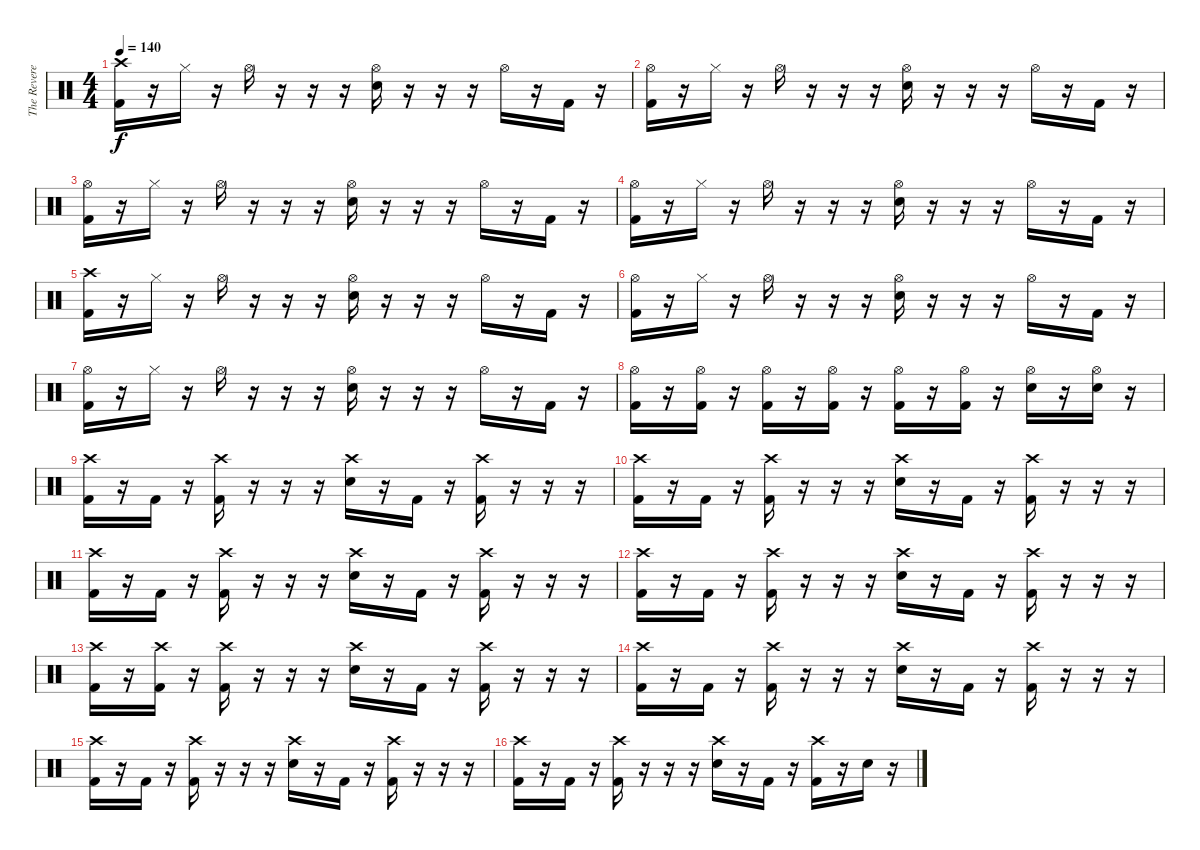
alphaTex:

\track ("The Reverend" "The Revere") {instrument percussion}
\staff {score}
\articulation defaults
\ts (4 4)
\tempo 140
\clef neutral
\ks c
("Crash high (hit)" "Kick (hit) 2").16{dy f} r.16 "Hi-Hat (closed)".16 r.16 "Hi-Hat (open)".16 r.16 r.16 r.16 ("Hi-Hat (open)" "Electric Snare (hit)").16 r.16 r.16 r.16 "Hi-Hat (open)".16 r.16 "Kick (hit) 2".16 r.16 |
("Hi-Hat (open)" "Kick (hit) 2").16 r.16 "Hi-Hat (closed)".16 r.16 "Hi-Hat (open)".16 r.16 r.16 r.16 ("Hi-Hat (open)" "Electric Snare (hit)").16 r.16 r.16 r.16 "Hi-Hat (open)".16 r.16 "Kick (hit) 2".16 r.16 |
("Hi-Hat (open)" "Kick (hit) 2").16 r.16 "Hi-Hat (closed)".16 r.16 "Hi-Hat (open)".16 r.16 r.16 r.16 ("Hi-Hat (open)" "Electric Snare (hit)").16 r.16 r.16 r.16 "Hi-Hat (open)".16 r.16 "Kick (hit) 2".16 r.16 |
("Hi-Hat (open)" "Kick (hit) 2").16 r.16 "Hi-Hat (closed)".16 r.16 "Hi-Hat (open)".16 r.16 r.16 r.16 ("Hi-Hat (open)" "Electric Snare (hit)").16 r.16 r.16 r.16 "Hi-Hat (open)".16 r.16 "Kick (hit) 2".16 r.16 |
("Crash high (hit)" "Kick (hit) 2").16 r.16 "Hi-Hat (closed)".16 r.16 "Hi-Hat (open)".16 r.16 r.16 r.16 ("Hi-Hat (open)" "Electric Snare (hit)").16 r.16 r.16 r.16 "Hi-Hat (open)".16 r.16 "Kick (hit) 2".16 r.16 |
("Hi-Hat (open)" "Kick (hit) 2").16 r.16 "Hi-Hat (closed)".16 r.16 "Hi-Hat (open)".16 r.16 r.16 r.16 ("Hi-Hat (open)" "Electric Snare (hit)").16 r.16 r.16 r.16 "Hi-Hat (open)".16 r.16 "Kick (hit) 2".16 r.16 |
("Hi-Hat (open)" "Kick (hit) 2").16 r.16 "Hi-Hat (closed)".16 r.16 "Hi-Hat (open)".16 r.16 r.16 r.16 ("Hi-Hat (open)" "Electric Snare (hit)").16 r.16 r.16 r.16 "Hi-Hat (open)".16 r.16 "Kick (hit) 2".16 r.16 |
("Hi-Hat (open)" "Kick (hit) 2").16 r.16 ("Hi-Hat (open)" "Kick (hit) 2").16 r.16 ("Hi-Hat (open)" "Kick (hit) 2").16 r.16 ("Hi-Hat (open)" "Kick (hit) 2").16 r.16 ("Hi-Hat (open)" "Kick (hit) 2").16 r.16 ("Hi-Hat (open)" "Kick (hit) 2").16 r.16 ("Hi-Hat (open)" "Electric Snare (hit)").16 r.16 ("Hi-Hat (open)" "Electric Snare (hit)").16 r.16 |
("Crash high (hit)" "Kick (hit) 2").16 r.16 "Kick (hit) 2".16 r.16 ("Crash high (hit)" "Kick (hit) 2").16 r.16 r.16 r.16 ("Crash high (hit)" "Electric Snare (hit)").16 r.16 "Kick (hit) 2".16 r.16 ("Crash high (hit)" "Kick (hit) 2").16 r.16 r.16 r.16 |
("Crash high (hit)" "Kick (hit) 2").16 r.16 "Kick (hit) 2".16 r.16 ("Crash high (hit)" "Kick (hit) 2").16 r.16 r.16 r.16 ("Crash high (hit)" "Electric Snare (hit)").16 r.16 "Kick (hit) 2".16 r.16 ("Crash high (hit)" "Kick (hit) 2").16 r.16 r.16 r.16 |
("Crash high (hit)" "Kick (hit) 2").16 r.16 "Kick (hit) 2".16 r.16 ("Crash high (hit)" "Kick (hit) 2").16 r.16 r.16 r.16 ("Crash high (hit)" "Electric Snare (hit)").16 r.16 "Kick (hit) 2".16 r.16 ("Crash high (hit)" "Kick (hit) 2").16 r.16 r.16 r.16 |
("Crash high (hit)" "Kick (hit) 2").16 r.16 "Kick (hit) 2".16 r.16 ("Crash high (hit)" "Kick (hit) 2").16 r.16 r.16 r.16 ("Crash high (hit)" "Electric Snare (hit)").16 r.16 "Kick (hit) 2".16 r.16 ("Crash high (hit)" "Kick (hit) 2").16 r.16 r.16 r.16 |
("Crash high (hit)" "Kick (hit) 2").16 r.16 ("Crash high (hit)" "Kick (hit) 2").16 r.16 ("Crash high (hit)" "Kick (hit) 2").16 r.16 r.16 r.16 ("Crash high (hit)" "Electric Snare (hit)").16 r.16 "Kick (hit) 2".16 r.16 ("Crash high (hit)" "Kick (hit) 2").16 r.16 r.16 r.16 |
("Crash high (hit)" "Kick (hit) 2").16 r.16 "Kick (hit) 2".16 r.16 ("Crash high (hit)" "Kick (hit) 2").16 r.16 r.16 r.16 ("Crash high (hit)" "Electric Snare (hit)").16 r.16 "Kick (hit) 2".16 r.16 ("Crash high (hit)" "Kick (hit) 2").16 r.16 r.16 r.16 |
("Crash high (hit)" "Kick (hit) 2").16 r.16 "Kick (hit) 2".16 r.16 ("Crash high (hit)" "Kick (hit) 2").16 r.16 r.16 r.16 ("Crash high (hit)" "Electric Snare (hit)").16 r.16 "Kick (hit) 2".16 r.16 ("Crash high (hit)" "Kick (hit) 2").16 r.16 r.16 r.16 |
("Crash high (hit)" "Kick (hit) 2").16 r.16 "Kick (hit) 2".16 r.16 ("Crash high (hit)" "Kick (hit) 2").16 r.16 r.16 r.16 ("Crash high (hit)" "Electric Snare (hit)").16 r.16 "Kick (hit) 2".16 r.16 ("Crash high (hit)" "Kick (hit) 2").16 r.16 "Electric Snare (hit)".16 r.16
